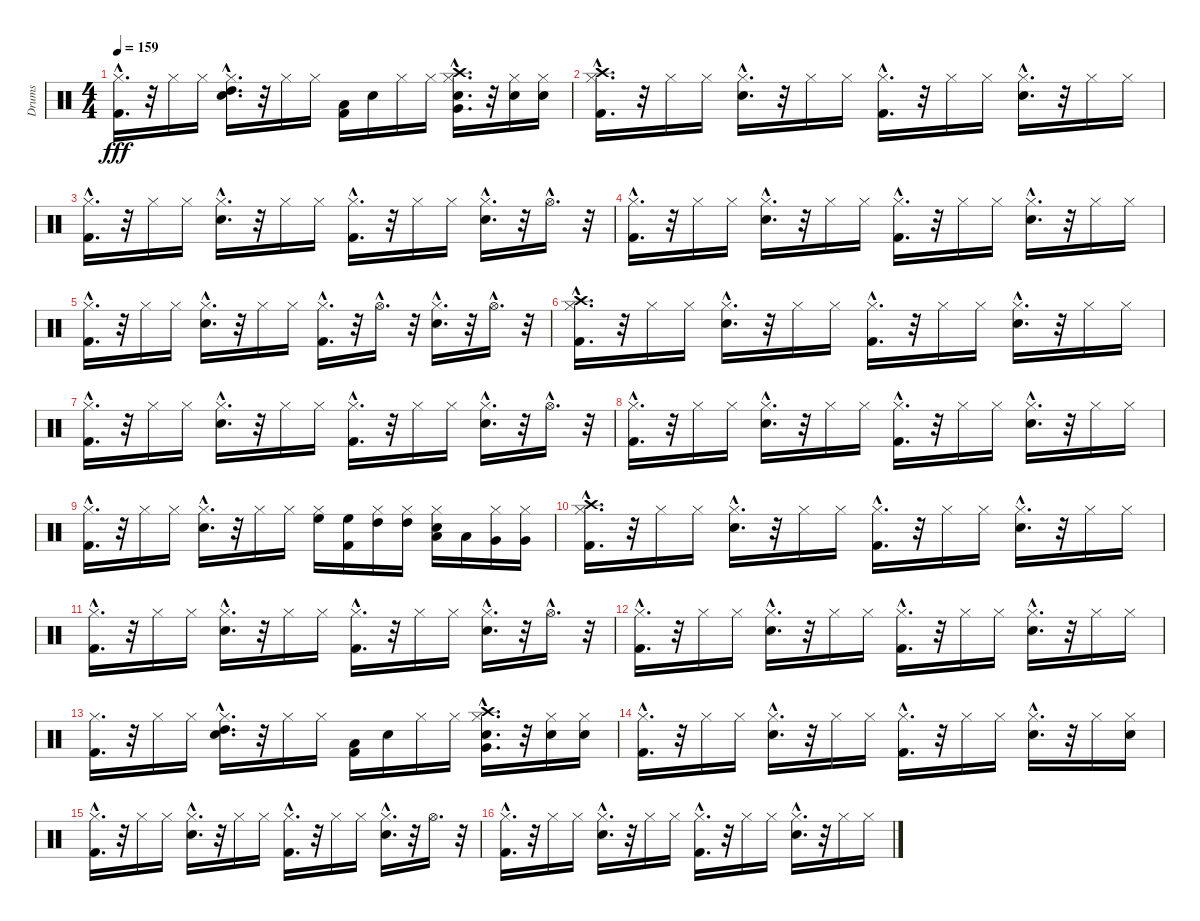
\track ("Drums" "Drums") {instrument percussion}
\staff {score}
\articulation defaults
\ts (4 4)
\tempo 159
\clef neutral
\ks c
("Kick (hit) 2"{hac} "Hi-Hat (closed)"{hac}).16{d dy fff} r.32 "Hi-Hat (closed)".16 "Hi-Hat (closed)".16 ("Electric Snare (hit)"{hac} "High Tom (hit)"{hac} "Hi-Hat (closed)"{hac}).16{d} r.32 "Hi-Hat (closed)".16 "Hi-Hat (closed)".16 ("Low Tom (hit)" "Kick (hit) 2").16 "Electric Snare (hit)".16 "Hi-Hat (closed)".16 "Hi-Hat (closed)".16 ("Crash high (hit)"{hac} "Very Low Tom (hit)"{hac} "Hi-Hat (closed)"{hac} "Electric Snare (hit)"{hac}).16{d} r.32 ("Hi-Hat (closed)" "Electric Snare (hit)").16 ("Hi-Hat (closed)" "Electric Snare (hit)").16 |
("Crash high (hit)"{hac} "Hi-Hat (closed)"{hac} "Kick (hit) 2"{hac}).16{d} r.32 "Hi-Hat (closed)".16 "Hi-Hat (closed)".16 ("Hi-Hat (closed)"{hac} "Electric Snare (hit)"{hac}).16{d} r.32 "Hi-Hat (closed)".16 "Hi-Hat (closed)".16 ("Hi-Hat (closed)"{hac} "Kick (hit) 2"{hac}).16{d} r.32 "Hi-Hat (closed)".16 "Hi-Hat (closed)".16 ("Hi-Hat (closed)"{hac} "Electric Snare (hit)"{hac}).16{d} r.32 "Hi-Hat (closed)".16 "Hi-Hat (closed)".16 |
("Hi-Hat (closed)"{hac} "Kick (hit) 2"{hac}).16{d} r.32 "Hi-Hat (closed)".16 "Hi-Hat (closed)".16 ("Hi-Hat (closed)"{hac} "Electric Snare (hit)"{hac}).16{d} r.32 "Hi-Hat (closed)".16 "Hi-Hat (closed)".16 ("Hi-Hat (closed)"{hac} "Kick (hit) 2"{hac}).16{d} r.32 "Hi-Hat (closed)".16 "Hi-Hat (closed)".16 ("Hi-Hat (closed)"{hac} "Electric Snare (hit)"{hac}).16{d} r.32 "Hi-Hat (open)"{hac}.16{d} r.32 |
("Kick (hit) 2"{hac} "Hi-Hat (closed)"{hac}).16{d} r.32 "Hi-Hat (closed)".16 "Hi-Hat (closed)".16 ("Electric Snare (hit)"{hac} "Hi-Hat (closed)"{hac}).16{d} r.32 "Hi-Hat (closed)".16 "Hi-Hat (closed)".16 ("Kick (hit) 2"{hac} "Hi-Hat (closed)"{hac}).16{d} r.32 "Hi-Hat (closed)".16 "Hi-Hat (closed)".16 ("Electric Snare (hit)"{hac} "Hi-Hat (closed)"{hac}).16{d} r.32 "Hi-Hat (closed)".16 "Hi-Hat (closed)".16 |
("Kick (hit) 2"{hac} "Hi-Hat (closed)"{hac}).16{d} r.32 "Hi-Hat (closed)".16 "Hi-Hat (closed)".16 ("Electric Snare (hit)"{hac} "Hi-Hat (closed)"{hac}).16{d} r.32 "Hi-Hat (closed)".16 "Hi-Hat (closed)".16 ("Kick (hit) 2"{hac} "Hi-Hat (closed)"{hac}).16{d} r.32 "Hi-Hat (open)"{hac}.16{d} r.32 ("Hi-Hat (closed)"{hac} "Electric Snare (hit)"{hac}).16{d} r.32 "Hi-Hat (open)"{hac}.16{d} r.32 |
("Crash high (hit)"{hac} "Hi-Hat (closed)"{hac} "Kick (hit) 2"{hac}).16{d} r.32 "Hi-Hat (closed)".16 "Hi-Hat (closed)".16 ("Hi-Hat (closed)"{hac} "Electric Snare (hit)"{hac}).16{d} r.32 "Hi-Hat (closed)".16 "Hi-Hat (closed)".16 ("Hi-Hat (closed)"{hac} "Kick (hit) 2"{hac}).16{d} r.32 "Hi-Hat (closed)".16 "Hi-Hat (closed)".16 ("Hi-Hat (closed)"{hac} "Electric Snare (hit)"{hac}).16{d} r.32 "Hi-Hat (closed)".16 "Hi-Hat (closed)".16 |
("Hi-Hat (closed)"{hac} "Kick (hit) 2"{hac}).16{d} r.32 "Hi-Hat (closed)".16 "Hi-Hat (closed)".16 ("Hi-Hat (closed)"{hac} "Electric Snare (hit)"{hac}).16{d} r.32 "Hi-Hat (closed)".16 "Hi-Hat (closed)".16 ("Hi-Hat (closed)"{hac} "Kick (hit) 2"{hac}).16{d} r.32 "Hi-Hat (closed)".16 "Hi-Hat (closed)".16 ("Hi-Hat (closed)"{hac} "Electric Snare (hit)"{hac}).16{d} r.32 "Hi-Hat (open)"{hac}.16{d} r.32 |
("Hi-Hat (closed)"{hac} "Kick (hit) 2"{hac}).16{d} r.32 "Hi-Hat (closed)".16 "Hi-Hat (closed)".16 ("Hi-Hat (closed)"{hac} "Electric Snare (hit)"{hac}).16{d} r.32 "Hi-Hat (closed)".16 "Hi-Hat (closed)".16 ("Hi-Hat (closed)"{hac} "Kick (hit) 2"{hac}).16{d} r.32 "Hi-Hat (closed)".16 "Hi-Hat (closed)".16 ("Hi-Hat (closed)"{hac} "Electric Snare (hit)"{hac}).16{d} r.32 "Hi-Hat (closed)".16 "Hi-Hat (closed)".16 |
("Kick (hit) 2"{hac} "Hi-Hat (closed)"{hac}).16{d} r.32 "Hi-Hat (closed)".16 "Hi-Hat (closed)".16 ("Electric Snare (hit)"{hac} "Hi-Hat (closed)"{hac}).16{d} r.32 "Hi-Hat (closed)".16 "Hi-Hat (closed)".16 ("High Floor Tom (hit)" "Hi-Hat (closed)").16 ("High Floor Tom (hit)" "Kick (hit) 2").16 ("High Tom (hit)" "Hi-Hat (closed)").16 ("High Tom (hit)" "Hi-Hat (closed)").16 ("Hi-Hat (closed)" "Low Tom (hit)" "Electric Snare (hit)").16 "Low Tom (hit)".16 ("Hi-Hat (closed)" "Very Low Tom (hit)").16 ("Hi-Hat (closed)" "Very Low Tom (hit)").16 |
("Crash high (hit)"{hac} "Hi-Hat (closed)"{hac} "Kick (hit) 2"{hac}).16{d} r.32 "Hi-Hat (closed)".16 "Hi-Hat (closed)".16 ("Hi-Hat (closed)"{hac} "Electric Snare (hit)"{hac}).16{d} r.32 "Hi-Hat (closed)".16 "Hi-Hat (closed)".16 ("Hi-Hat (closed)"{hac} "Kick (hit) 2"{hac}).16{d} r.32 "Hi-Hat (closed)".16 "Hi-Hat (closed)".16 ("Hi-Hat (closed)"{hac} "Electric Snare (hit)"{hac}).16{d} r.32 "Hi-Hat (closed)".16 "Hi-Hat (closed)".16 |
("Hi-Hat (closed)"{hac} "Kick (hit) 2"{hac}).16{d} r.32 "Hi-Hat (closed)".16 "Hi-Hat (closed)".16 ("Hi-Hat (closed)"{hac} "Electric Snare (hit)"{hac}).16{d} r.32 "Hi-Hat (closed)".16 "Hi-Hat (closed)".16 ("Hi-Hat (closed)"{hac} "Kick (hit) 2"{hac}).16{d} r.32 "Hi-Hat (closed)".16 "Hi-Hat (closed)".16 ("Hi-Hat (closed)"{hac} "Electric Snare (hit)"{hac}).16{d} r.32 "Hi-Hat (open)"{hac}.16{d} r.32 |
("Hi-Hat (closed)"{hac} "Kick (hit) 2"{hac}).16{d} r.32 "Hi-Hat (closed)".16 "Hi-Hat (closed)".16 ("Hi-Hat (closed)"{hac} "Electric Snare (hit)"{hac}).16{d} r.32 "Hi-Hat (closed)".16 "Hi-Hat (closed)".16 ("Hi-Hat (closed)"{hac} "Kick (hit) 2"{hac}).16{d} r.32 "Hi-Hat (closed)".16 "Hi-Hat (closed)".16 ("Hi-Hat (closed)"{hac} "Electric Snare (hit)"{hac}).16{d} r.32 "Hi-Hat (closed)".16 "Hi-Hat (closed)".16 |
("Hi-Hat (closed)" "Kick (hit) 2").16{d} r.32 "Hi-Hat (closed)".16 "Hi-Hat (closed)".16 ("Electric Snare (hit)"{hac} "High Tom (hit)"{hac} "Hi-Hat (closed)"{hac}).16{d} r.32 "Hi-Hat (closed)".16 "Hi-Hat (closed)".16 ("Low Tom (hit)" "Kick (hit) 2").16 "Electric Snare (hit)".16 "Hi-Hat (closed)".16 "Hi-Hat (closed)".16 ("Crash high (hit)"{hac} "Very Low Tom (hit)"{hac} "Hi-Hat (closed)"{hac} "Electric Snare (hit)"{hac}).16{d} r.32 ("Hi-Hat (closed)" "Electric Snare (hit)").16 ("Hi-Hat (closed)" "Electric Snare (hit)").16 |
("Hi-Hat (closed)"{hac} "Kick (hit) 2"{hac}).16{d} r.32 "Hi-Hat (closed)".16 "Hi-Hat (closed)".16 ("Hi-Hat (closed)"{hac} "Electric Snare (hit)"{hac}).16{d} r.32 "Hi-Hat (closed)".16 "Hi-Hat (closed)".16 ("Hi-Hat (closed)"{hac} "Kick (hit) 2"{hac}).16{d} r.32 "Hi-Hat (closed)".16 "Hi-Hat (closed)".16 ("Hi-Hat (closed)"{hac} "Electric Snare (hit)"{hac}).16{d} r.32 "Hi-Hat (closed)".16 ("Electric Snare (hit)" "Hi-Hat (closed)").16 |
("Hi-Hat (closed)"{hac} "Kick (hit) 2"{hac}).16{d} r.32 "Hi-Hat (closed)".16 "Hi-Hat (closed)".16 ("Electric Snare (hit)"{hac} "Hi-Hat (closed)"{hac}).16{d} r.32 "Hi-Hat (closed)".16 "Hi-Hat (closed)".16 ("Hi-Hat (closed)"{hac} "Kick (hit) 2"{hac}).16{d} r.32 "Hi-Hat (closed)".16 "Hi-Hat (closed)".16 ("Hi-Hat (closed)"{hac} "Electric Snare (hit)"{hac}).16{d} r.32 "Hi-Hat (open)".16{d} r.32 |
("Hi-Hat (closed)"{hac} "Kick (hit) 2"{hac}).16{d} r.32 "Hi-Hat (closed)".16 "Hi-Hat (closed)".16 ("Hi-Hat (closed)"{hac} "Electric Snare (hit)"{hac}).16{d} r.32 "Hi-Hat (closed)".16 "Hi-Hat (closed)".16 ("Hi-Hat (closed)"{hac} "Kick (hit) 2"{hac}).16{d} r.32 "Hi-Hat (closed)".16 "Hi-Hat (closed)".16 ("Hi-Hat (closed)"{hac} "Electric Snare (hit)"{hac}).16{d} r.32 "Hi-Hat (closed)".16 "Hi-Hat (closed)".16
